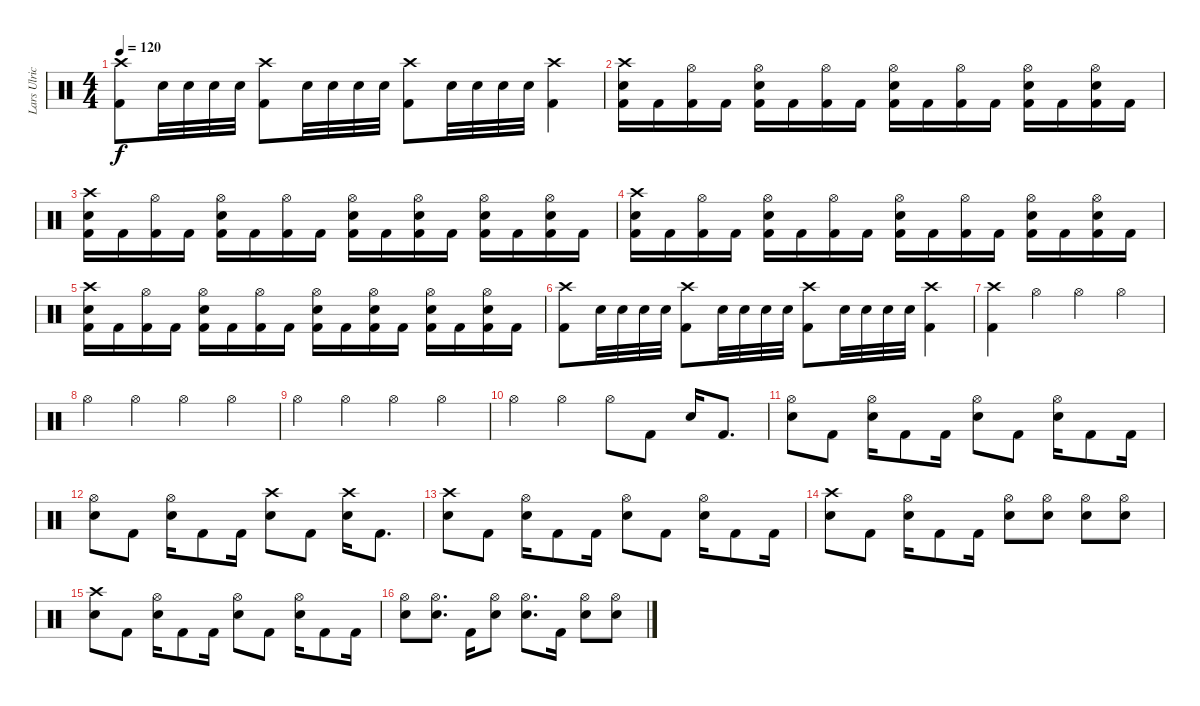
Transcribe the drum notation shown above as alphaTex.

\track ("Lars Ulrich" "Lars Ulric") {instrument percussion}
\staff {score}
\articulation defaults
\ts (4 4)
\tempo 120
\clef neutral
\ks c
("Kick (hit) 2" "Crash high (hit)").8{dy f} "Electric Snare (hit)".32 "Electric Snare (hit)".32 "Electric Snare (hit)".32 "Electric Snare (hit)".32 ("Kick (hit) 2" "Crash high (hit)").8 "Electric Snare (hit)".32 "Electric Snare (hit)".32 "Electric Snare (hit)".32 "Electric Snare (hit)".32 ("Kick (hit) 2" "Crash high (hit)").8 "Electric Snare (hit)".32 "Electric Snare (hit)".32 "Electric Snare (hit)".32 "Electric Snare (hit)".32 ("Kick (hit) 2" "Crash high (hit)").4 |
("Crash high (hit)" "Electric Snare (hit)" "Kick (hit) 2").16 "Kick (hit) 2".16 ("Hi-Hat (open)" "Kick (hit) 2").16 "Kick (hit) 2".16 ("Hi-Hat (open)" "Electric Snare (hit)" "Kick (hit) 2").16 "Kick (hit) 2".16 ("Hi-Hat (open)" "Kick (hit) 2").16 "Kick (hit) 2".16 ("Hi-Hat (open)" "Electric Snare (hit)" "Kick (hit) 2").16 "Kick (hit) 2".16 ("Hi-Hat (open)" "Kick (hit) 2").16 "Kick (hit) 2".16 ("Hi-Hat (open)" "Electric Snare (hit)" "Kick (hit) 2").16 "Kick (hit) 2".16 ("Hi-Hat (open)" "Electric Snare (hit)" "Kick (hit) 2").16 "Kick (hit) 2".16 |
("Crash high (hit)" "Electric Snare (hit)" "Kick (hit) 2").16 "Kick (hit) 2".16 ("Hi-Hat (open)" "Kick (hit) 2").16 "Kick (hit) 2".16 ("Hi-Hat (open)" "Electric Snare (hit)" "Kick (hit) 2").16 "Kick (hit) 2".16 ("Hi-Hat (open)" "Kick (hit) 2").16 "Kick (hit) 2".16 ("Hi-Hat (open)" "Electric Snare (hit)" "Kick (hit) 2").16 "Kick (hit) 2".16 ("Hi-Hat (open)" "Electric Snare (hit)" "Kick (hit) 2").16 "Kick (hit) 2".16 ("Hi-Hat (open)" "Electric Snare (hit)" "Kick (hit) 2").16 "Kick (hit) 2".16 ("Hi-Hat (open)" "Electric Snare (hit)" "Kick (hit) 2").16 "Kick (hit) 2".16 |
("Crash high (hit)" "Electric Snare (hit)" "Kick (hit) 2").16 "Kick (hit) 2".16 ("Hi-Hat (open)" "Kick (hit) 2").16 "Kick (hit) 2".16 ("Hi-Hat (open)" "Electric Snare (hit)" "Kick (hit) 2").16 "Kick (hit) 2".16 ("Hi-Hat (open)" "Kick (hit) 2").16 "Kick (hit) 2".16 ("Hi-Hat (open)" "Electric Snare (hit)" "Kick (hit) 2").16 "Kick (hit) 2".16 ("Hi-Hat (open)" "Kick (hit) 2").16 "Kick (hit) 2".16 ("Hi-Hat (open)" "Electric Snare (hit)" "Kick (hit) 2").16 "Kick (hit) 2".16 ("Hi-Hat (open)" "Electric Snare (hit)" "Kick (hit) 2").16 "Kick (hit) 2".16 |
("Crash high (hit)" "Electric Snare (hit)" "Kick (hit) 2").16 "Kick (hit) 2".16 ("Hi-Hat (open)" "Kick (hit) 2").16 "Kick (hit) 2".16 ("Hi-Hat (open)" "Electric Snare (hit)" "Kick (hit) 2").16 "Kick (hit) 2".16 ("Hi-Hat (open)" "Kick (hit) 2").16 "Kick (hit) 2".16 ("Hi-Hat (open)" "Electric Snare (hit)" "Kick (hit) 2").16 "Kick (hit) 2".16 ("Hi-Hat (open)" "Electric Snare (hit)" "Kick (hit) 2").16 "Kick (hit) 2".16 ("Hi-Hat (open)" "Electric Snare (hit)" "Kick (hit) 2").16 "Kick (hit) 2".16 ("Hi-Hat (open)" "Electric Snare (hit)" "Kick (hit) 2").16 "Kick (hit) 2".16 |
("Kick (hit) 2" "Crash high (hit)").8 "Electric Snare (hit)".32 "Electric Snare (hit)".32 "Electric Snare (hit)".32 "Electric Snare (hit)".32 ("Kick (hit) 2" "Crash high (hit)").8 "Electric Snare (hit)".32 "Electric Snare (hit)".32 "Electric Snare (hit)".32 "Electric Snare (hit)".32 ("Kick (hit) 2" "Crash high (hit)").8 "Electric Snare (hit)".32 "Electric Snare (hit)".32 "Electric Snare (hit)".32 "Electric Snare (hit)".32 ("Kick (hit) 2" "Crash high (hit)").4 |
("Crash high (hit)" "Kick (hit) 2").4 "Hi-Hat (open)".4{volume 7} "Hi-Hat (open)".4 "Hi-Hat (open)".4 |
"Hi-Hat (open)".4 "Hi-Hat (open)".4 "Hi-Hat (open)".4 "Hi-Hat (open)".4 |
"Hi-Hat (open)".4{volume 10} "Hi-Hat (open)".4 "Hi-Hat (open)".4 "Hi-Hat (open)".4 |
"Hi-Hat (open)".4{volume 13} "Hi-Hat (open)".4 "Hi-Hat (open)".8 "Kick (hit) 2".8 "Electric Snare (hit)".16 "Kick (hit) 2".8{d} |
("Hi-Hat (open)" "Electric Snare (hit)").8 "Kick (hit) 2".8 ("Hi-Hat (open)" "Electric Snare (hit)").16 "Kick (hit) 2".8 "Kick (hit) 2".16 ("Hi-Hat (open)" "Electric Snare (hit)").8 "Kick (hit) 2".8 ("Hi-Hat (open)" "Electric Snare (hit)").16 "Kick (hit) 2".8 "Kick (hit) 2".16 |
("Hi-Hat (open)" "Electric Snare (hit)").8 "Kick (hit) 2".8 ("Hi-Hat (open)" "Electric Snare (hit)").16 "Kick (hit) 2".8 "Kick (hit) 2".16 ("Crash high (hit)" "Electric Snare (hit)").8 "Kick (hit) 2".8 ("Crash high (hit)" "Electric Snare (hit)").16 "Kick (hit) 2".8{d} |
("Crash high (hit)" "Electric Snare (hit)").8 "Kick (hit) 2".8 ("Hi-Hat (open)" "Electric Snare (hit)").16 "Kick (hit) 2".8 "Kick (hit) 2".16 ("Hi-Hat (open)" "Electric Snare (hit)").8 "Kick (hit) 2".8 ("Hi-Hat (open)" "Electric Snare (hit)").16 "Kick (hit) 2".8 "Kick (hit) 2".16 |
("Crash high (hit)" "Electric Snare (hit)").8 "Kick (hit) 2".8 ("Hi-Hat (open)" "Electric Snare (hit)").16 "Kick (hit) 2".8 "Kick (hit) 2".16 ("Hi-Hat (open)" "Electric Snare (hit)").8 ("Hi-Hat (open)" "Electric Snare (hit)").8 ("Hi-Hat (open)" "Electric Snare (hit)").8 ("Hi-Hat (open)" "Electric Snare (hit)").8 |
("Crash high (hit)" "Electric Snare (hit)").8 "Kick (hit) 2".8 ("Hi-Hat (open)" "Electric Snare (hit)").16 "Kick (hit) 2".8 "Kick (hit) 2".16 ("Hi-Hat (open)" "Electric Snare (hit)").8 "Kick (hit) 2".8 ("Hi-Hat (open)" "Electric Snare (hit)").16 "Kick (hit) 2".8 "Kick (hit) 2".16 |
("Hi-Hat (open)" "Electric Snare (hit)").8 ("Hi-Hat (open)" "Electric Snare (hit)").8{d} "Kick (hit) 2".16 ("Hi-Hat (open)" "Electric Snare (hit)").8 ("Hi-Hat (open)" "Electric Snare (hit)").8{d} "Kick (hit) 2".16 ("Hi-Hat (open)" "Electric Snare (hit)").8 ("Hi-Hat (open)" "Electric Snare (hit)").8
